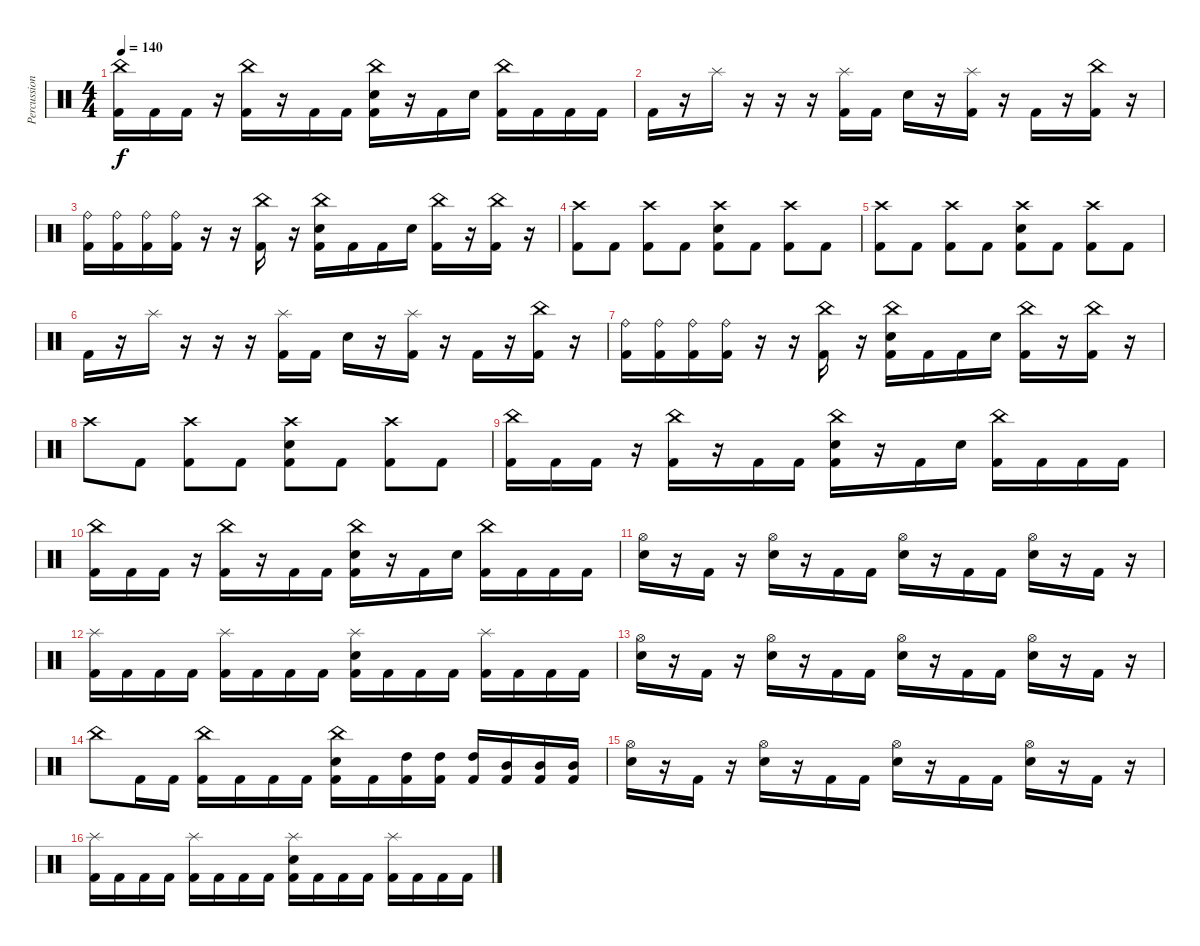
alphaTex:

\track ("Percussion" "Percussion") {instrument percussion}
\staff {score}
\articulation defaults
\ts (4 4)
\tempo 140
\clef neutral
\ks c
("China (hit)" "Kick (hit) 2").16{dy f} "Kick (hit) 2".16 "Kick (hit) 2".16 r.16 ("China (hit)" "Kick (hit) 2").16 r.16 "Kick (hit) 2".16 "Kick (hit) 2".16 ("China (hit)" "Snare (hit) 2" "Kick (hit) 2").16 r.16 "Kick (hit) 2".16 "Snare (hit) 2".16 ("China (hit)" "Kick (hit) 2").16 "Kick (hit) 2".16 "Kick (hit) 2".16 "Kick (hit) 2".16 |
"Kick (hit) 2".16 r.16 "Splash (hit)".16 r.16 r.16 r.16 ("Splash (hit)" "Kick (hit) 2").16 "Kick (hit) 2".16 "Snare (hit) 2".16 r.16 ("Splash (hit)" "Kick (hit) 2").16 r.16 "Kick (hit) 2".16 r.16 ("China (hit)" "Kick (hit) 2").16 r.16 |
("Ride (bell)" "Kick (hit) 2").16 ("Ride (bell)" "Kick (hit) 2").16 ("Ride (bell)" "Kick (hit) 2").16 ("Ride (bell)" "Kick (hit) 2").16 r.16 r.16 ("China (hit)" "Kick (hit) 2").16 r.16 ("China (hit)" "Snare (hit) 2" "Kick (hit) 2").16 "Kick (hit) 2".16 "Kick (hit) 2".16 "Snare (hit) 2".16 ("China (hit)" "Kick (hit) 2").16 r.16 ("China (hit)" "Kick (hit) 2").16 r.16 |
("Crash high (hit)" "Kick (hit) 2").8 "Kick (hit) 2".8 ("Crash high (hit)" "Kick (hit) 2").8 "Kick (hit) 2".8 ("Crash high (hit)" "Snare (hit) 2" "Kick (hit) 2").8 "Kick (hit) 2".8 ("Crash high (hit)" "Kick (hit) 2").8 "Kick (hit) 2".8 |
("Crash high (hit)" "Kick (hit) 2").8 "Kick (hit) 2".8 ("Crash high (hit)" "Kick (hit) 2").8 "Kick (hit) 2".8 ("Crash high (hit)" "Snare (hit) 2" "Kick (hit) 2").8 "Kick (hit) 2".8 ("Crash high (hit)" "Kick (hit) 2").8 "Kick (hit) 2".8 |
"Kick (hit) 2".16 r.16 "Splash (hit)".16 r.16 r.16 r.16 ("Splash (hit)" "Kick (hit) 2").16 "Kick (hit) 2".16 "Snare (hit) 2".16 r.16 ("Splash (hit)" "Kick (hit) 2").16 r.16 "Kick (hit) 2".16 r.16 ("China (hit)" "Kick (hit) 2").16 r.16 |
("Ride (bell)" "Kick (hit) 2").16 ("Ride (bell)" "Kick (hit) 2").16 ("Ride (bell)" "Kick (hit) 2").16 ("Ride (bell)" "Kick (hit) 2").16 r.16 r.16 ("China (hit)" "Kick (hit) 2").16 r.16 ("China (hit)" "Snare (hit) 2" "Kick (hit) 2").16 "Kick (hit) 2".16 "Kick (hit) 2".16 "Snare (hit) 2".16 ("China (hit)" "Kick (hit) 2").16 r.16 ("China (hit)" "Kick (hit) 2").16 r.16 |
"Crash high (hit)".8 "Kick (hit) 2".8 ("Crash high (hit)" "Kick (hit) 2").8 "Kick (hit) 2".8 ("Crash high (hit)" "Snare (hit) 2" "Kick (hit) 2").8 "Kick (hit) 2".8 ("Crash high (hit)" "Kick (hit) 2").8 "Kick (hit) 2".8 |
("China (hit)" "Kick (hit) 2").16 "Kick (hit) 2".16 "Kick (hit) 2".16 r.16 ("China (hit)" "Kick (hit) 2").16 r.16 "Kick (hit) 2".16 "Kick (hit) 2".16 ("China (hit)" "Snare (hit) 2" "Kick (hit) 2").16 r.16 "Kick (hit) 2".16 "Snare (hit) 2".16 ("China (hit)" "Kick (hit) 2").16 "Kick (hit) 2".16 "Kick (hit) 2".16 "Kick (hit) 2".16 |
("China (hit)" "Kick (hit) 2").16 "Kick (hit) 2".16 "Kick (hit) 2".16 r.16 ("China (hit)" "Kick (hit) 2").16 r.16 "Kick (hit) 2".16 "Kick (hit) 2".16 ("China (hit)" "Snare (hit) 2" "Kick (hit) 2").16 r.16 "Kick (hit) 2".16 "Snare (hit) 2".16 ("China (hit)" "Kick (hit) 2").16 "Kick (hit) 2".16 "Kick (hit) 2".16 "Kick (hit) 2".16 |
("Hi-Hat (open)" "Snare (hit) 2").16 r.16 "Kick (hit) 2".16 r.16 ("Hi-Hat (open)" "Snare (hit) 2").16 r.16 "Kick (hit) 2".16 "Kick (hit) 2".16 ("Hi-Hat (open)" "Snare (hit) 2").16 r.16 "Kick (hit) 2".16 "Kick (hit) 2".16 ("Hi-Hat (open)" "Snare (hit) 2").16 r.16 "Kick (hit) 2".16 r.16 |
("Splash (hit)" "Kick (hit) 2").16 "Kick (hit) 2".16 "Kick (hit) 2".16 "Kick (hit) 2".16 ("Splash (hit)" "Kick (hit) 2").16 "Kick (hit) 2".16 "Kick (hit) 2".16 "Kick (hit) 2".16 ("Splash (hit)" "Snare (hit) 2" "Kick (hit) 2").16 "Kick (hit) 2".16 "Kick (hit) 2".16 "Kick (hit) 2".16 ("Splash (hit)" "Kick (hit) 2").16 "Kick (hit) 2".16 "Kick (hit) 2".16 "Kick (hit) 2".16 |
("Hi-Hat (open)" "Snare (hit) 2").16 r.16 "Kick (hit) 2".16 r.16 ("Hi-Hat (open)" "Snare (hit) 2").16 r.16 "Kick (hit) 2".16 "Kick (hit) 2".16 ("Hi-Hat (open)" "Snare (hit) 2").16 r.16 "Kick (hit) 2".16 "Kick (hit) 2".16 ("Hi-Hat (open)" "Snare (hit) 2").16 r.16 "Kick (hit) 2".16 r.16 |
"China (hit)".8 "Kick (hit) 2".16 "Kick (hit) 2".16 ("China (hit)" "Kick (hit) 2").16 "Kick (hit) 2".16 "Kick (hit) 2".16 "Kick (hit) 2".16 ("China (hit)" "Snare (hit) 2" "Kick (hit) 2").16 "Kick (hit) 2".16 ("High Tom (hit)" "Kick (hit) 2").16 ("High Tom (hit)" "Kick (hit) 2").16 ("High Tom (hit)" "Kick (hit) 2").16 ("Mid Tom (hit)" "Kick (hit) 2").16 ("Mid Tom (hit)" "Kick (hit) 2").16 ("Mid Tom (hit)" "Kick (hit) 2").16 |
("Hi-Hat (open)" "Snare (hit) 2").16 r.16 "Kick (hit) 2".16 r.16 ("Hi-Hat (open)" "Snare (hit) 2").16 r.16 "Kick (hit) 2".16 "Kick (hit) 2".16 ("Hi-Hat (open)" "Snare (hit) 2").16 r.16 "Kick (hit) 2".16 "Kick (hit) 2".16 ("Hi-Hat (open)" "Snare (hit) 2").16 r.16 "Kick (hit) 2".16 r.16 |
("Splash (hit)" "Kick (hit) 2").16 "Kick (hit) 2".16 "Kick (hit) 2".16 "Kick (hit) 2".16 ("Splash (hit)" "Kick (hit) 2").16 "Kick (hit) 2".16 "Kick (hit) 2".16 "Kick (hit) 2".16 ("Splash (hit)" "Snare (hit) 2" "Kick (hit) 2").16 "Kick (hit) 2".16 "Kick (hit) 2".16 "Kick (hit) 2".16 ("Splash (hit)" "Kick (hit) 2").16 "Kick (hit) 2".16 "Kick (hit) 2".16 "Kick (hit) 2".16
